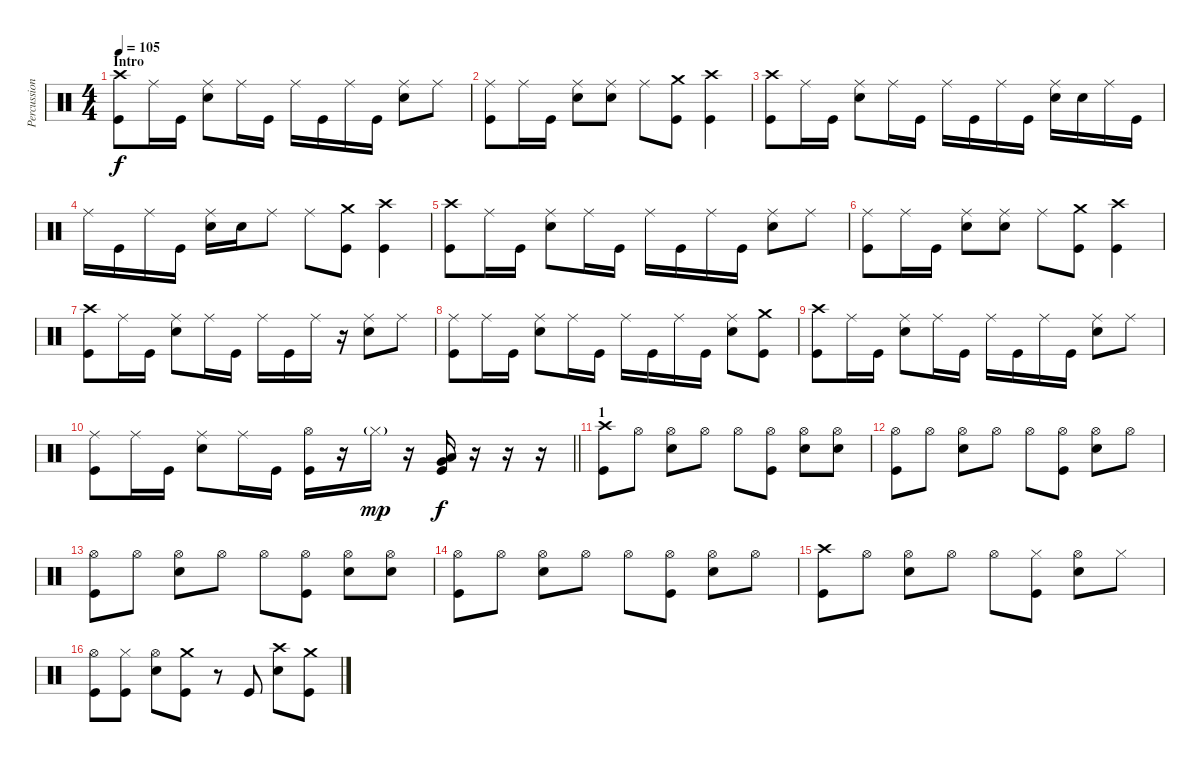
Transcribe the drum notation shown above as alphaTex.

\track ("Percussions" "Percussion") {instrument percussion}
\staff {score}
\articulation defaults
\ts (4 4)
\section ("" "Intro")
\tempo 105
\clef neutral
\ks c
("Crash high (hit)" "Kick (hit)").8{dy f} "Ride (middle)".16 "Kick (hit)".16 ("Ride (middle)" "Snare (hit) 2").8 "Ride (middle)".16 "Kick (hit)".16 "Ride (middle)".16 "Kick (hit)".16 "Ride (middle)".16 "Kick (hit)".16 ("Ride (middle)" "Snare (hit) 2").8 "Ride (middle)".8 |
("Ride (middle)" "Kick (hit)").8 "Ride (middle)".16 "Kick (hit)".16 ("Ride (middle)" "Snare (hit) 2").8 ("Ride (middle)" "Snare (hit) 2").8 "Ride (middle)".8 ("Crash medium (hit)" "Kick (hit)").8 ("Crash high (hit)" "Kick (hit)").4 |
("Crash high (hit)" "Kick (hit)").8 "Ride (middle)".16 "Kick (hit)".16 ("Ride (middle)" "Snare (hit) 2").8 "Ride (middle)".16 "Kick (hit)".16 "Ride (middle)".16 "Kick (hit)".16 "Ride (middle)".16 "Kick (hit)".16 ("Ride (middle)" "Snare (hit) 2").16 "Snare (hit) 2".16 "Ride (middle)".16 "Kick (hit)".16 |
"Ride (middle)".16 "Kick (hit)".16 "Ride (middle)".16 "Kick (hit)".16 ("Ride (middle)" "Snare (hit) 2").16 "Snare (hit) 2".16 "Ride (middle)".8 "Ride (middle)".8 ("Crash medium (hit)" "Kick (hit)").8 ("Crash high (hit)" "Kick (hit)").4 |
("Crash high (hit)" "Kick (hit)").8 "Ride (middle)".16 "Kick (hit)".16 ("Ride (middle)" "Snare (hit) 2").8 "Ride (middle)".16 "Kick (hit)".16 "Ride (middle)".16 "Kick (hit)".16 "Ride (middle)".16 "Kick (hit)".16 ("Ride (middle)" "Snare (hit) 2").8 "Ride (middle)".8 |
("Ride (middle)" "Kick (hit)").8 "Ride (middle)".16 "Kick (hit)".16 ("Ride (middle)" "Snare (hit) 2").8 ("Ride (middle)" "Snare (hit) 2").8 "Ride (middle)".8 ("Crash medium (hit)" "Kick (hit)").8 ("Crash high (hit)" "Kick (hit)").4 |
("Crash high (hit)" "Kick (hit)").8 "Ride (middle)".16 "Kick (hit)".16 ("Ride (middle)" "Snare (hit) 2").8 "Ride (middle)".16 "Kick (hit)".16 "Ride (middle)".16 "Kick (hit)".16 "Ride (middle)".16 r.16 ("Ride (middle)" "Snare (hit) 2").8 "Ride (middle)".8 |
("Ride (middle)" "Kick (hit)").8 "Ride (middle)".16 "Kick (hit)".16 ("Ride (middle)" "Snare (hit) 2").8 "Ride (middle)".16 "Kick (hit)".16 "Ride (middle)".16 "Kick (hit)".16 "Ride (middle)".16 "Kick (hit)".16 ("Ride (middle)" "Snare (hit) 2").8 ("Crash medium (hit)" "Kick (hit)").8 |
("Crash high (hit)" "Kick (hit)").8 "Ride (middle)".16 "Kick (hit)".16 ("Ride (middle)" "Snare (hit) 2").8 "Ride (middle)".16 "Kick (hit)".16 "Ride (middle)".16 "Kick (hit)".16 "Ride (middle)".16 "Kick (hit)".16 ("Ride (middle)" "Snare (hit) 2").8 "Ride (middle)".8 |
\barLineRight lightlight
("Ride (middle)" "Kick (hit)").8 "Ride (middle)".16 "Kick (hit)".16 ("Ride (middle)" "Snare (hit) 2").8 "Ride (middle)".16 "Kick (hit)".16 ("Hi-Hat (open)" "Kick (hit)").16 r.16 "Hi-Hat (closed)"{g}.16{dy mp} r.16 ("Low Tom (hit)" "Very Low Tom (hit)" "Kick (hit)").16{dy f} r.16 r.16 r.16 |
\section ("" "1")
("Crash high (hit)" "Kick (hit)").8 "Hi-Hat (open)".8 ("Hi-Hat (open)" "Snare (hit) 2").8 "Hi-Hat (open)".8 "Hi-Hat (open)".8 ("Hi-Hat (open)" "Kick (hit)").8 ("Hi-Hat (open)" "Snare (hit) 2").8 ("Hi-Hat (open)" "Snare (hit) 2").8 |
("Hi-Hat (open)" "Kick (hit)").8 "Hi-Hat (open)".8 ("Hi-Hat (open)" "Snare (hit) 2").8 "Hi-Hat (open)".8 "Hi-Hat (open)".8 ("Hi-Hat (open)" "Kick (hit)").8 ("Hi-Hat (open)" "Snare (hit) 2").8 "Hi-Hat (open)".8 |
("Hi-Hat (open)" "Kick (hit)").8 "Hi-Hat (open)".8 ("Hi-Hat (open)" "Snare (hit) 2").8 "Hi-Hat (open)".8 "Hi-Hat (open)".8 ("Hi-Hat (open)" "Kick (hit)").8 ("Hi-Hat (open)" "Snare (hit) 2").8 ("Hi-Hat (open)" "Snare (hit) 2").8 |
("Hi-Hat (open)" "Kick (hit)").8 "Hi-Hat (open)".8 ("Hi-Hat (open)" "Snare (hit) 2").8 "Hi-Hat (open)".8 "Hi-Hat (open)".8 ("Hi-Hat (open)" "Kick (hit)").8 ("Hi-Hat (open)" "Snare (hit) 2").8 "Hi-Hat (open)".8 |
("Crash high (hit)" "Kick (hit)").8 "Hi-Hat (open)".8 ("Hi-Hat (open)" "Snare (hit) 2").8 "Hi-Hat (open)".8 "Hi-Hat (open)".8 ("Hi-Hat (closed)" "Kick (hit)").8 ("Hi-Hat (open)" "Snare (hit) 2").8 "Hi-Hat (closed)".8 |
("Hi-Hat (open)" "Kick (hit)").8 ("Hi-Hat (closed)" "Kick (hit)").8 ("Hi-Hat (open)" "Snare (hit) 2").8 ("Crash medium (hit)" "Kick (hit)").8 r.8 "Kick (hit)".8 ("Crash high (hit)" "Snare (hit) 2").8 ("Crash medium (hit)" "Kick (hit)").8
